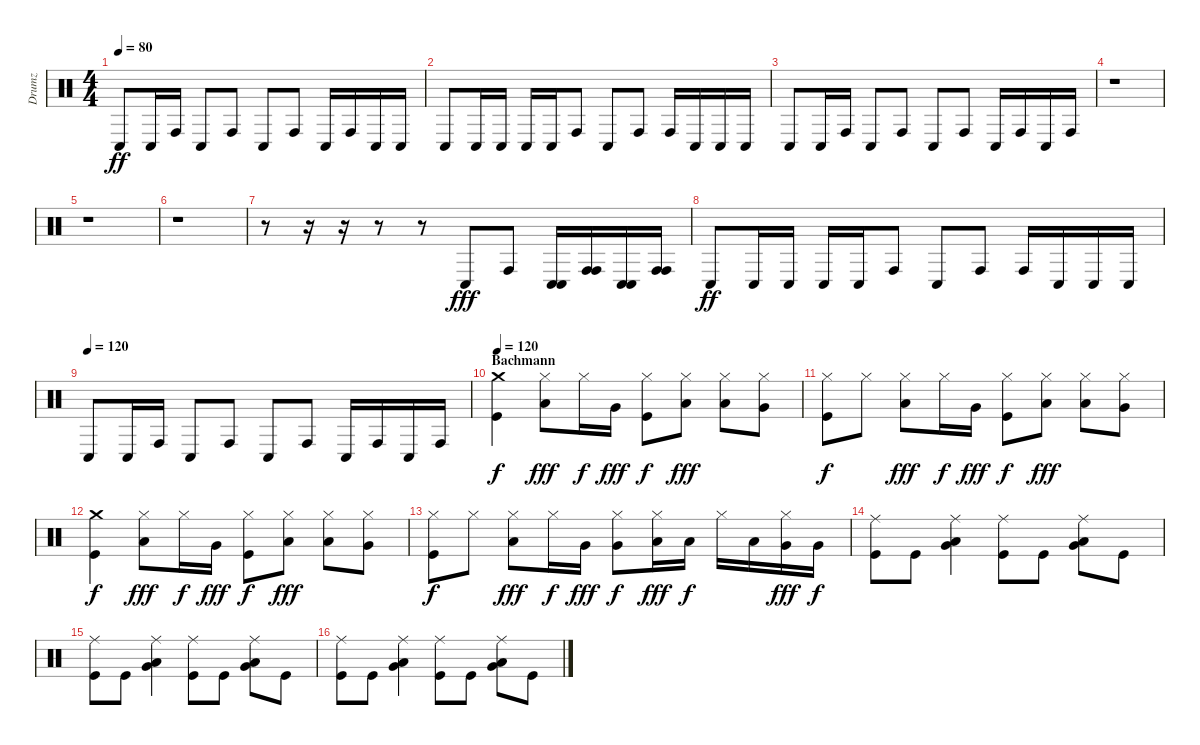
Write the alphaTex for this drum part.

\track ("Drumz" "Drumz") {instrument percussion}
\staff {score}
\articulation defaults
\ts (4 4)
\tempo 80
\clef neutral
\ks c "Conga low (hit)".8{dy ff} "Conga low (hit)".16 "Conga high (hit)".16 "Conga low (hit)".8 "Conga high (hit)".8 "Conga low (hit)".8 "Conga high (hit)".8 "Conga low (hit)".16 "Conga high (hit)".16 "Conga low (hit)".16 "Conga low (hit)".16
|
"Conga low (hit)".8 "Conga low (hit)".16 "Conga low (hit)".16 "Conga low (hit)".16 "Conga low (hit)".16 "Conga high (hit)".8 "Conga low (hit)".8 "Conga high (hit)".8 "Conga high (hit)".16 "Conga low (hit)".16 "Conga low (hit)".16 "Conga low (hit)".16 |
"Conga low (hit)".8 "Conga low (hit)".16 "Conga high (hit)".16 "Conga low (hit)".8 "Conga high (hit)".8 "Conga low (hit)".8 "Conga high (hit)".8 "Conga low (hit)".16 "Conga high (hit)".16 "Conga low (hit)".16 "Conga high (hit)".16 |
r.1 |
r.1 |
r.1 |
r.8 r.16 r.16 r.8 r.8 "Conga low (hit)".8{dy fff} "Conga high (hit)".8 ("Conga low (hit)" "Conga low (hit)").16 ("Conga high (hit)" "Conga high (hit)").16 ("Conga low (hit)" "Conga low (hit)").16 ("Conga high (hit)" "Conga high (hit)").16 |
"Conga low (hit)".8{dy ff} "Conga low (hit)".16 "Conga low (hit)".16 "Conga low (hit)".16 "Conga low (hit)".16 "Conga high (hit)".8 "Conga low (hit)".8 "Conga high (hit)".8 "Conga high (hit)".16 "Conga low (hit)".16 "Conga low (hit)".16 "Conga low (hit)".16 |
\tempo (120)
"Conga low (hit)".8 "Conga low (hit)".16 "Conga high (hit)".16 "Conga low (hit)".8 "Conga high (hit)".8 "Conga low (hit)".8 "Conga high (hit)".8 "Conga low (hit)".16 "Conga high (hit)".16 "Conga low (hit)".16 "Conga high (hit)".16 |
\section ("" "Bachmann")
\tempo 120
("Crash medium (hit)" "Kick (hit)").4{dy f volume 16} ("Hi-Hat (closed)" "Low Tom (hit)").8{dy fff} "Hi-Hat (closed)".16{dy f} "Very Low Tom (hit)".16{dy fff} ("Hi-Hat (closed)" "Kick (hit)").8{dy f} ("Hi-Hat (closed)" "Low Tom (hit)").8{dy fff} ("Hi-Hat (closed)" "Low Tom (hit)").8 ("Hi-Hat (closed)" "Very Low Tom (hit)").8 |
("Hi-Hat (closed)" "Kick (hit)").8{dy f} "Hi-Hat (closed)".8 ("Hi-Hat (closed)" "Low Tom (hit)").8{dy fff} "Hi-Hat (closed)".16{dy f} "Very Low Tom (hit)".16{dy fff} ("Hi-Hat (closed)" "Kick (hit)").8{dy f} ("Hi-Hat (closed)" "Low Tom (hit)").8{dy fff} ("Hi-Hat (closed)" "Low Tom (hit)").8 ("Hi-Hat (closed)" "Very Low Tom (hit)").8 |
("Crash medium (hit)" "Kick (hit)").4{dy f} ("Hi-Hat (closed)" "Low Tom (hit)").8{dy fff} "Hi-Hat (closed)".16{dy f} "Very Low Tom (hit)".16{dy fff} ("Hi-Hat (closed)" "Kick (hit)").8{dy f} ("Hi-Hat (closed)" "Low Tom (hit)").8{dy fff} ("Hi-Hat (closed)" "Low Tom (hit)").8 ("Hi-Hat (closed)" "Very Low Tom (hit)").8 |
("Hi-Hat (closed)" "Kick (hit)").8{dy f} "Hi-Hat (closed)".8 ("Hi-Hat (closed)" "Low Tom (hit)").8{dy fff} "Hi-Hat (closed)".16{dy f} "Very Low Tom (hit)".16{dy fff} ("Hi-Hat (closed)" "Very Low Tom (hit)").8{dy f} ("Hi-Hat (closed)" "Low Tom (hit)").16{dy fff} "Low Tom (hit)".16{dy f} "Hi-Hat (closed)".16 "Low Tom (hit)".16 ("Hi-Hat (closed)" "Very Low Tom (hit)").16{dy fff} "Very Low Tom (hit)".16{dy f} |
("Ride (middle)" "Kick (hit)").8 "Kick (hit)".8 ("Ride (middle)" "Low Tom (hit)" "Very Low Tom (hit)").4 ("Ride (middle)" "Kick (hit)").8 "Kick (hit)".8 ("Ride (middle)" "Low Tom (hit)" "Very Low Tom (hit)").8 "Kick (hit)".8 |
("Ride (middle)" "Kick (hit)").8 "Kick (hit)".8 ("Ride (middle)" "Low Tom (hit)" "Very Low Tom (hit)").4 ("Ride (middle)" "Kick (hit)").8 "Kick (hit)".8 ("Ride (middle)" "Low Tom (hit)" "Very Low Tom (hit)").8 "Kick (hit)".8 |
("Ride (middle)" "Kick (hit)").8 "Kick (hit)".8 ("Ride (middle)" "Low Tom (hit)" "Very Low Tom (hit)").4 ("Ride (middle)" "Kick (hit)").8 "Kick (hit)".8 ("Ride (middle)" "Low Tom (hit)" "Very Low Tom (hit)").8 "Kick (hit)".8
